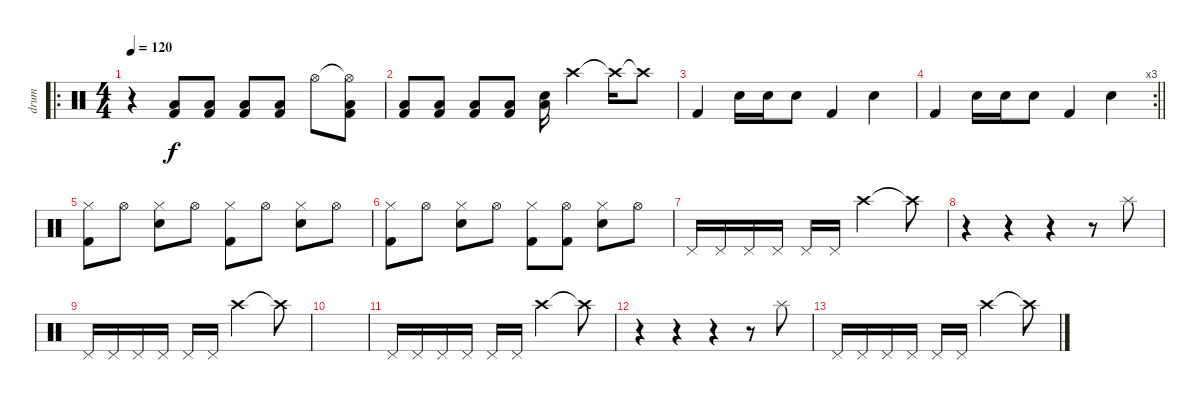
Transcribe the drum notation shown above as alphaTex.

\track ("drum" "drum") {instrument percussion}
\staff {score}
\articulation defaults
\ro
\ts (4 4)
\tempo 120
\clef neutral
\ks c
r.4{dy f} ("Low Tom (hit)" "Kick (hit) 2").8 ("Low Tom (hit)" "Kick (hit) 2").8 ("Low Tom (hit)" "Kick (hit) 2").8 ("Low Tom (hit)" "Kick (hit) 2").8 "Hi-Hat (open)".8 ("Hi-Hat (open)"{t} "Low Tom (hit)" "Kick (hit) 2").8 |
("Low Tom (hit)" "Kick (hit) 2").8 ("Low Tom (hit)" "Kick (hit) 2").8 ("Low Tom (hit)" "Kick (hit) 2").8 ("Low Tom (hit)" "Kick (hit) 2").8 ("Low Tom (hit)" "Electric Snare (hit)").16 "Crash high (hit)".4 "Crash high (hit)"{t}.16 "Crash high (hit)"{t}.8 |
"Kick (hit) 2".4 "Electric Snare (hit)".16 "Electric Snare (hit)".16 "Electric Snare (hit)".8 "Kick (hit) 2".4 "Electric Snare (hit)".4 |
\rc 3
\barLineRight lightlight "Kick (hit) 2".4 "Electric Snare (hit)".16 "Electric Snare (hit)".16 "Electric Snare (hit)".8 "Kick (hit) 2".4 "Electric Snare (hit)".4
|
("Hi-Hat (closed)" "Kick (hit) 2").8 "Hi-Hat (open)".8 ("Hi-Hat (closed)" "Electric Snare (hit)").8 "Hi-Hat (open)".8 ("Hi-Hat (closed)" "Kick (hit) 2").8 "Hi-Hat (open)".8 ("Hi-Hat (closed)" "Electric Snare (hit)").8 "Hi-Hat (open)".8 |
("Hi-Hat (closed)" "Kick (hit) 2").8 "Hi-Hat (open)".8 ("Hi-Hat (closed)" "Electric Snare (hit)").8 "Hi-Hat (open)".8 ("Hi-Hat (closed)" "Kick (hit) 2").8 ("Hi-Hat (open)" "Kick (hit) 2").8 ("Hi-Hat (closed)" "Electric Snare (hit)").8 "Hi-Hat (open)".8 |
"Pedal Hi-Hat (hit)".16 "Pedal Hi-Hat (hit)".16 "Pedal Hi-Hat (hit)".16 "Pedal Hi-Hat (hit)".16 "Pedal Hi-Hat (hit)".16 "Pedal Hi-Hat (hit)".16 "Crash high (hit)".2 "Crash high (hit)"{t}.8 |
r.4 r.4 r.4 r.8 "Splash (hit)".8 |
"Pedal Hi-Hat (hit)".16 "Pedal Hi-Hat (hit)".16 "Pedal Hi-Hat (hit)".16 "Pedal Hi-Hat (hit)".16 "Pedal Hi-Hat (hit)".16 "Pedal Hi-Hat (hit)".16 "Crash high (hit)".2 "Crash high (hit)"{t}.8 |
|
"Pedal Hi-Hat (hit)".16 "Pedal Hi-Hat (hit)".16 "Pedal Hi-Hat (hit)".16 "Pedal Hi-Hat (hit)".16 "Pedal Hi-Hat (hit)".16 "Pedal Hi-Hat (hit)".16 "Crash high (hit)".2 "Crash high (hit)"{t}.8 |
r.4 r.4 r.4 r.8 "Splash (hit)".8 |
"Pedal Hi-Hat (hit)".16 "Pedal Hi-Hat (hit)".16 "Pedal Hi-Hat (hit)".16 "Pedal Hi-Hat (hit)".16 "Pedal Hi-Hat (hit)".16 "Pedal Hi-Hat (hit)".16 "Crash high (hit)".2 "Crash high (hit)"{t}.8
